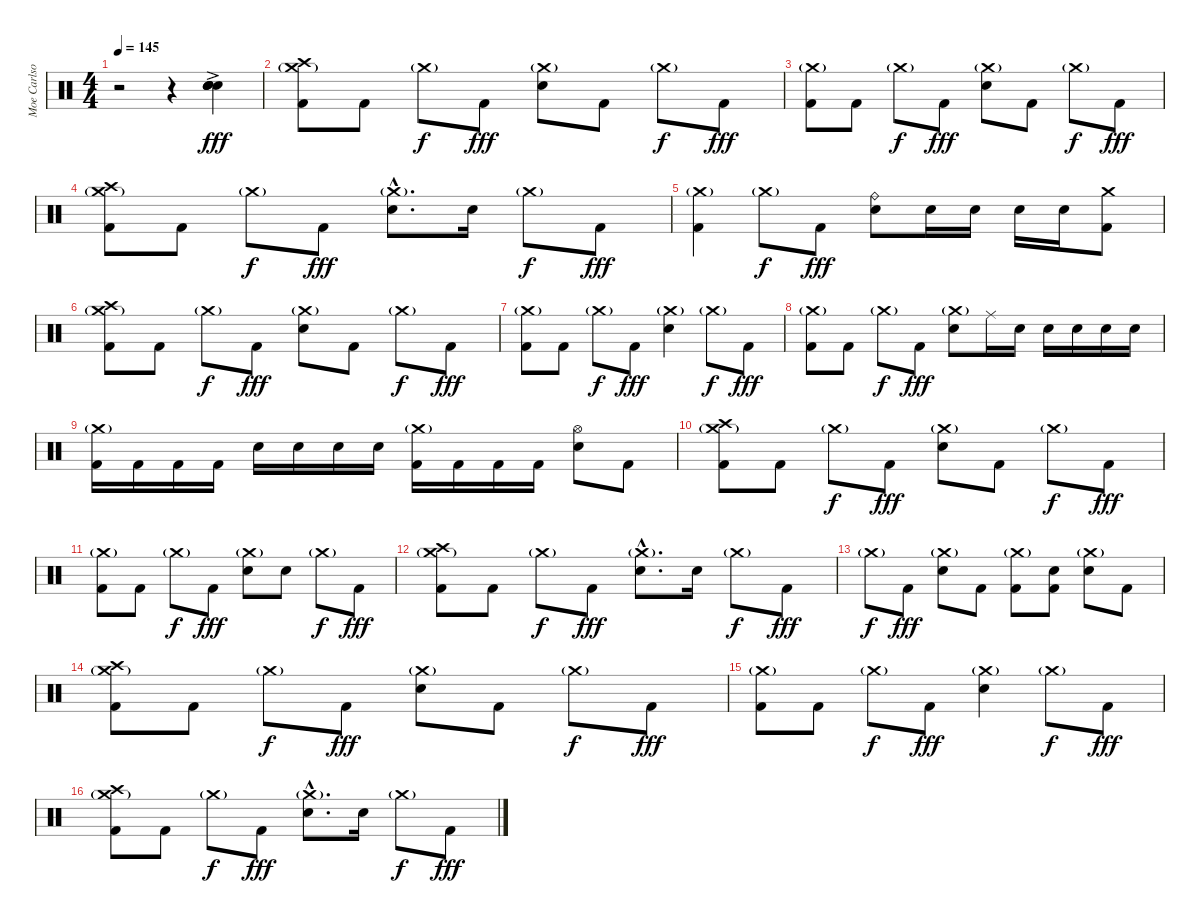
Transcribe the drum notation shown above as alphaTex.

\track ("Moe Carlson" "Moe Carlso") {instrument percussion}
\staff {score}
\articulation defaults
\ts (4 4)
\tempo 145
\clef neutral
\ks c
r.2{dy fff} r.4 ("Snare (hit) 2" "Snare (hit) 2"{ac} "Electric Snare (hit)" "Electric Snare (hit)").4 |
("Crash medium (hit)"{g} "Crash high (hit)" "Kick (hit) 2").8 "Kick (hit) 2".8 "Crash medium (hit)"{g}.8{dy f} "Kick (hit) 2".8{dy fff} ("Crash medium (hit)"{g} "Electric Snare (hit)").8 "Kick (hit) 2".8 "Crash medium (hit)"{g}.8{dy f} "Kick (hit) 2".8{dy fff} |
("Crash medium (hit)"{g} "Kick (hit) 2").8 "Kick (hit) 2".8 "Crash medium (hit)"{g}.8{dy f} "Kick (hit) 2".8{dy fff} ("Crash medium (hit)"{g} "Electric Snare (hit)").8 "Kick (hit) 2".8 "Crash medium (hit)"{g}.8{dy f} "Kick (hit) 2".8{dy fff} |
("Crash medium (hit)"{g} "Crash high (hit)" "Kick (hit) 2").8 "Kick (hit) 2".8 "Crash medium (hit)"{g}.8{dy f} "Kick (hit) 2".8{dy fff} ("Crash medium (hit)"{g hac} "Electric Snare (hit)"{hac}).8{d} "Electric Snare (hit)".16 "Crash medium (hit)"{g}.8{dy f} "Kick (hit) 2".8{dy fff} |
("Crash medium (hit)"{g} "Kick (hit) 2").4 "Crash medium (hit)"{g}.8{dy f} "Kick (hit) 2".8{dy fff} ("Ride (bell)" "Electric Snare (hit)").8 "Electric Snare (hit)".16 "Electric Snare (hit)".16 "Electric Snare (hit)".16 "Electric Snare (hit)".16 ("Crash medium (hit)" "Kick (hit) 2").8 |
("Crash medium (hit)"{g} "Crash high (hit)" "Kick (hit) 2").8 "Kick (hit) 2".8 "Crash medium (hit)"{g}.8{dy f} "Kick (hit) 2".8{dy fff} ("Crash medium (hit)"{g} "Electric Snare (hit)").8 "Kick (hit) 2".8 "Crash medium (hit)"{g}.8{dy f} "Kick (hit) 2".8{dy fff} |
("Crash medium (hit)"{g} "Kick (hit) 2").8 "Kick (hit) 2".8 "Crash medium (hit)"{g}.8{dy f} "Kick (hit) 2".8{dy fff} ("Crash medium (hit)"{g} "Electric Snare (hit)").4 "Crash medium (hit)"{g}.8{dy f} "Kick (hit) 2".8{dy fff} |
("Crash medium (hit)"{g} "Kick (hit) 2").8 "Kick (hit) 2".8 "Crash medium (hit)"{g}.8{dy f} "Kick (hit) 2".8{dy fff} ("Crash medium (hit)"{g} "Electric Snare (hit)").8 "Ride (middle)".16 "Electric Snare (hit)".16 "Electric Snare (hit)".16 "Electric Snare (hit)".16 "Electric Snare (hit)".16 "Electric Snare (hit)".16 |
("Crash medium (hit)"{g} "Kick (hit) 2").16 "Kick (hit) 2".16 "Kick (hit) 2".16 "Kick (hit) 2".16 "Electric Snare (hit)".16 "Electric Snare (hit)".16 "Electric Snare (hit)".16 "Electric Snare (hit)".16 ("Crash medium (hit)"{g} "Kick (hit) 2").16 "Kick (hit) 2".16 "Kick (hit) 2".16 "Kick (hit) 2".16 ("Hi-Hat (open)" "Electric Snare (hit)").8 "Kick (hit) 2".8 |
("Crash medium (hit)"{g} "Crash high (hit)" "Kick (hit) 2").8 "Kick (hit) 2".8 "Crash medium (hit)"{g}.8{dy f} "Kick (hit) 2".8{dy fff} ("Crash medium (hit)"{g} "Electric Snare (hit)").8 "Kick (hit) 2".8 "Crash medium (hit)"{g}.8{dy f} "Kick (hit) 2".8{dy fff} |
("Crash medium (hit)"{g} "Kick (hit) 2").8 "Kick (hit) 2".8 "Crash medium (hit)"{g}.8{dy f} "Kick (hit) 2".8{dy fff} ("Crash medium (hit)"{g} "Electric Snare (hit)").8 "Electric Snare (hit)".8 "Crash medium (hit)"{g}.8{dy f} "Kick (hit) 2".8{dy fff} |
("Crash medium (hit)"{g} "Crash high (hit)" "Kick (hit) 2").8 "Kick (hit) 2".8 "Crash medium (hit)"{g}.8{dy f} "Kick (hit) 2".8{dy fff} ("Crash medium (hit)"{g hac} "Electric Snare (hit)"{hac}).8{d} "Electric Snare (hit)".16 "Crash medium (hit)"{g}.8{dy f} "Kick (hit) 2".8{dy fff} |
"Crash medium (hit)"{g}.8{dy f} "Kick (hit) 2".8{dy fff} ("Crash medium (hit)"{g} "Electric Snare (hit)").8 "Kick (hit) 2".8 ("Crash medium (hit)"{g} "Kick (hit) 2").8 ("Electric Snare (hit)" "Kick (hit) 2").8 ("Crash medium (hit)"{g} "Electric Snare (hit)").8 "Kick (hit) 2".8 |
("Crash medium (hit)"{g} "Crash high (hit)" "Kick (hit) 2").8 "Kick (hit) 2".8 "Crash medium (hit)"{g}.8{dy f} "Kick (hit) 2".8{dy fff} ("Crash medium (hit)"{g} "Electric Snare (hit)").8 "Kick (hit) 2".8 "Crash medium (hit)"{g}.8{dy f} "Kick (hit) 2".8{dy fff} |
("Crash medium (hit)"{g} "Kick (hit) 2").8 "Kick (hit) 2".8 "Crash medium (hit)"{g}.8{dy f} "Kick (hit) 2".8{dy fff} ("Crash medium (hit)"{g} "Electric Snare (hit)").4 "Crash medium (hit)"{g}.8{dy f} "Kick (hit) 2".8{dy fff} |
("Crash medium (hit)"{g} "Crash high (hit)" "Kick (hit) 2").8 "Kick (hit) 2".8 "Crash medium (hit)"{g}.8{dy f} "Kick (hit) 2".8{dy fff} ("Crash medium (hit)"{g hac} "Electric Snare (hit)"{hac}).8{d} "Electric Snare (hit)".16 "Crash medium (hit)"{g}.8{dy f} "Kick (hit) 2".8{dy fff}
